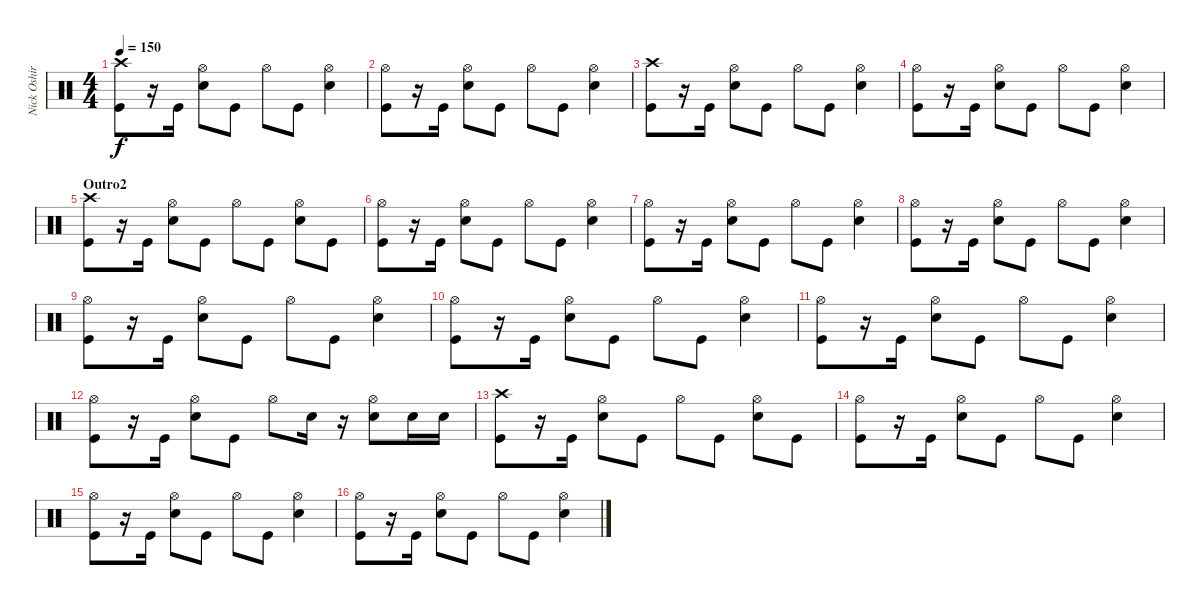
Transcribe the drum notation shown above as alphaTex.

\track ("Nick Oshiro" "Nick Oshir") {instrument percussion}
\staff {score}
\articulation defaults
\ts (4 4)
\tempo 150
\clef neutral
\ks c
("Crash high (hit)" "Kick (hit)").8{dy f} r.16 "Kick (hit)".16 ("Hi-Hat (open)" "Snare (hit) 2").8 "Kick (hit)".8 "Hi-Hat (open)".8 "Kick (hit)".8 ("Hi-Hat (open)" "Snare (hit) 2").4 |
("Hi-Hat (open)" "Kick (hit)").8 r.16 "Kick (hit)".16 ("Hi-Hat (open)" "Snare (hit) 2").8 "Kick (hit)".8 "Hi-Hat (open)".8 "Kick (hit)".8 ("Hi-Hat (open)" "Snare (hit) 2").4 |
("Crash high (hit)" "Kick (hit)").8 r.16 "Kick (hit)".16 ("Hi-Hat (open)" "Snare (hit) 2").8 "Kick (hit)".8 "Hi-Hat (open)".8 "Kick (hit)".8 ("Hi-Hat (open)" "Snare (hit) 2").4 |
("Hi-Hat (open)" "Kick (hit)").8 r.16 "Kick (hit)".16 ("Hi-Hat (open)" "Snare (hit) 2").8 "Kick (hit)".8 "Hi-Hat (open)".8 "Kick (hit)".8 ("Hi-Hat (open)" "Snare (hit) 2").4 |
\section ("" "Outro2")
("Crash high (hit)" "Kick (hit)").8 r.16 "Kick (hit)".16 ("Hi-Hat (open)" "Snare (hit) 2").8 "Kick (hit)".8 "Hi-Hat (open)".8 "Kick (hit)".8 ("Hi-Hat (open)" "Snare (hit) 2").8 "Kick (hit)".8 |
("Hi-Hat (open)" "Kick (hit)").8 r.16 "Kick (hit)".16 ("Hi-Hat (open)" "Snare (hit) 2").8 "Kick (hit)".8 "Hi-Hat (open)".8 "Kick (hit)".8 ("Hi-Hat (open)" "Snare (hit) 2").4 |
("Hi-Hat (open)" "Kick (hit)").8 r.16 "Kick (hit)".16 ("Hi-Hat (open)" "Snare (hit) 2").8 "Kick (hit)".8 "Hi-Hat (open)".8 "Kick (hit)".8 ("Hi-Hat (open)" "Snare (hit) 2").4 |
("Hi-Hat (open)" "Kick (hit)").8 r.16 "Kick (hit)".16 ("Hi-Hat (open)" "Snare (hit) 2").8 "Kick (hit)".8 "Hi-Hat (open)".8 "Kick (hit)".8 ("Hi-Hat (open)" "Snare (hit) 2").4 |
("Hi-Hat (open)" "Kick (hit)").8 r.16 "Kick (hit)".16 ("Hi-Hat (open)" "Snare (hit) 2").8 "Kick (hit)".8 "Hi-Hat (open)".8 "Kick (hit)".8 ("Hi-Hat (open)" "Snare (hit) 2").4 |
("Hi-Hat (open)" "Kick (hit)").8 r.16 "Kick (hit)".16 ("Hi-Hat (open)" "Snare (hit) 2").8 "Kick (hit)".8 "Hi-Hat (open)".8 "Kick (hit)".8 ("Hi-Hat (open)" "Snare (hit) 2").4 |
("Hi-Hat (open)" "Kick (hit)").8 r.16 "Kick (hit)".16 ("Hi-Hat (open)" "Snare (hit) 2").8 "Kick (hit)".8 "Hi-Hat (open)".8 "Kick (hit)".8 ("Hi-Hat (open)" "Snare (hit) 2").4 |
("Hi-Hat (open)" "Kick (hit)").8 r.16 "Kick (hit)".16 ("Hi-Hat (open)" "Snare (hit) 2").8 "Kick (hit)".8 "Hi-Hat (open)".8 "Snare (hit) 2".16 r.16 ("Hi-Hat (open)" "Snare (hit) 2").8 "Snare (hit) 2".16 "Snare (hit) 2".16 |
("Crash high (hit)" "Kick (hit)").8 r.16 "Kick (hit)".16 ("Hi-Hat (open)" "Snare (hit) 2").8 "Kick (hit)".8 "Hi-Hat (open)".8 "Kick (hit)".8 ("Hi-Hat (open)" "Snare (hit) 2").8 "Kick (hit)".8 |
("Hi-Hat (open)" "Kick (hit)").8 r.16 "Kick (hit)".16 ("Hi-Hat (open)" "Snare (hit) 2").8 "Kick (hit)".8 "Hi-Hat (open)".8 "Kick (hit)".8 ("Hi-Hat (open)" "Snare (hit) 2").4 |
("Hi-Hat (open)" "Kick (hit)").8 r.16 "Kick (hit)".16 ("Hi-Hat (open)" "Snare (hit) 2").8 "Kick (hit)".8 "Hi-Hat (open)".8 "Kick (hit)".8 ("Hi-Hat (open)" "Snare (hit) 2").4 |
("Hi-Hat (open)" "Kick (hit)").8 r.16 "Kick (hit)".16 ("Hi-Hat (open)" "Snare (hit) 2").8 "Kick (hit)".8 "Hi-Hat (open)".8 "Kick (hit)".8 ("Hi-Hat (open)" "Snare (hit) 2").4
